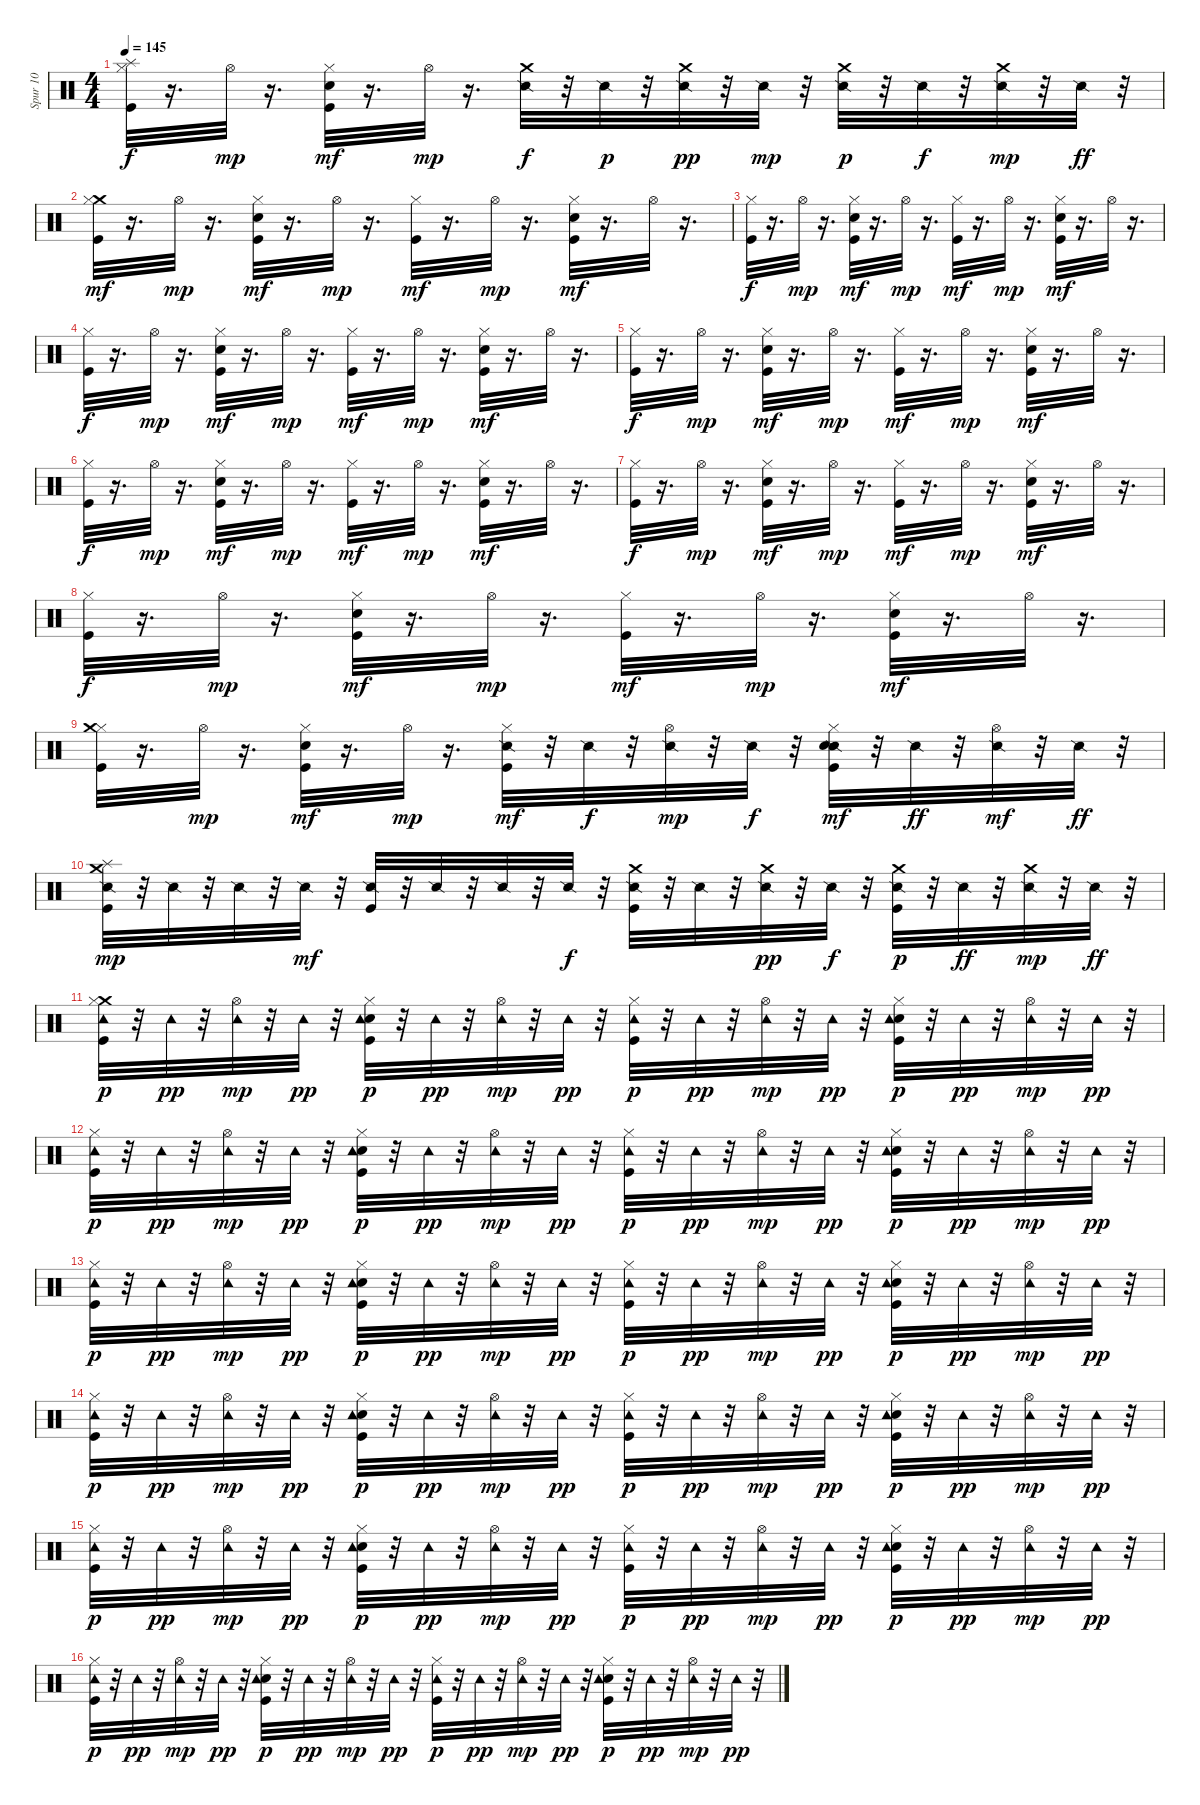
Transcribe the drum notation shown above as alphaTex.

\track ("Spur 10" "Spur 10") {instrument percussion}
\staff {score}
\articulation defaults
\ts (4 4)
\tempo 145
\clef neutral
\ks c
("Kick (hit)" "Hi-Hat (closed)" "Splash (hit)").32{dy f} r.16{d} "Hi-Hat (open)".32{dy mp} r.16{d} ("Kick (hit)" "Snare (hit) 2" "Hi-Hat (closed)").32{dy mf} r.16{d} "Hi-Hat (open)".32{dy mp} r.16{d} ("Snare (side stick) 2" "Crash medium (hit)").32{dy f balance 12} r.32 "Snare (side stick) 2".32{dy p} r.32 ("Snare (side stick) 2" "Crash medium (hit)").32{dy pp balance 10} r.32 "Snare (side stick) 2".32{dy mp} r.32 ("Snare (side stick) 2" "Crash medium (hit)").32{dy p balance 6} r.32 "Snare (side stick) 2".32{dy f} r.32 ("Snare (side stick) 2" "Crash medium (hit)").32{dy mp balance 2} r.32 "Snare (side stick) 2".32{dy ff} r.32 |
("Crash medium (hit)" "Kick (hit)" "Hi-Hat (closed)").32{dy mf balance 8} r.16{d} "Hi-Hat (open)".32{dy mp} r.16{d} ("Kick (hit)" "Snare (hit) 2" "Hi-Hat (closed)").32{dy mf} r.16{d} "Hi-Hat (open)".32{dy mp} r.16{d} ("Kick (hit)" "Hi-Hat (closed)").32{dy mf} r.16{d} "Hi-Hat (open)".32{dy mp} r.16{d} ("Kick (hit)" "Snare (hit) 2" "Hi-Hat (closed)").32{dy mf} r.16{d} "Hi-Hat (open)".32 r.16{d} |
("Kick (hit)" "Hi-Hat (closed)").32{dy f} r.16{d} "Hi-Hat (open)".32{dy mp} r.16{d} ("Kick (hit)" "Snare (hit) 2" "Hi-Hat (closed)").32{dy mf} r.16{d} "Hi-Hat (open)".32{dy mp} r.16{d} ("Kick (hit)" "Hi-Hat (closed)").32{dy mf} r.16{d} "Hi-Hat (open)".32{dy mp} r.16{d} ("Kick (hit)" "Snare (hit) 2" "Hi-Hat (closed)").32{dy mf} r.16{d} "Hi-Hat (open)".32 r.16{d} |
("Kick (hit)" "Hi-Hat (closed)").32{dy f} r.16{d} "Hi-Hat (open)".32{dy mp} r.16{d} ("Kick (hit)" "Snare (hit) 2" "Hi-Hat (closed)").32{dy mf} r.16{d} "Hi-Hat (open)".32{dy mp} r.16{d} ("Kick (hit)" "Hi-Hat (closed)").32{dy mf} r.16{d} "Hi-Hat (open)".32{dy mp} r.16{d} ("Kick (hit)" "Snare (hit) 2" "Hi-Hat (closed)").32{dy mf} r.16{d} "Hi-Hat (open)".32 r.16{d} |
("Kick (hit)" "Hi-Hat (closed)").32{dy f} r.16{d} "Hi-Hat (open)".32{dy mp} r.16{d} ("Kick (hit)" "Snare (hit) 2" "Hi-Hat (closed)").32{dy mf} r.16{d} "Hi-Hat (open)".32{dy mp} r.16{d} ("Kick (hit)" "Hi-Hat (closed)").32{dy mf} r.16{d} "Hi-Hat (open)".32{dy mp} r.16{d} ("Kick (hit)" "Snare (hit) 2" "Hi-Hat (closed)").32{dy mf} r.16{d} "Hi-Hat (open)".32 r.16{d} |
("Kick (hit)" "Hi-Hat (closed)").32{dy f} r.16{d} "Hi-Hat (open)".32{dy mp} r.16{d} ("Kick (hit)" "Snare (hit) 2" "Hi-Hat (closed)").32{dy mf} r.16{d} "Hi-Hat (open)".32{dy mp} r.16{d} ("Kick (hit)" "Hi-Hat (closed)").32{dy mf} r.16{d} "Hi-Hat (open)".32{dy mp} r.16{d} ("Kick (hit)" "Snare (hit) 2" "Hi-Hat (closed)").32{dy mf} r.16{d} "Hi-Hat (open)".32 r.16{d} |
("Kick (hit)" "Hi-Hat (closed)").32{dy f} r.16{d} "Hi-Hat (open)".32{dy mp} r.16{d} ("Kick (hit)" "Snare (hit) 2" "Hi-Hat (closed)").32{dy mf} r.16{d} "Hi-Hat (open)".32{dy mp} r.16{d} ("Kick (hit)" "Hi-Hat (closed)").32{dy mf} r.16{d} "Hi-Hat (open)".32{dy mp} r.16{d} ("Kick (hit)" "Snare (hit) 2" "Hi-Hat (closed)").32{dy mf} r.16{d} "Hi-Hat (open)".32 r.16{d} |
("Kick (hit)" "Hi-Hat (closed)").32{dy f} r.16{d} "Hi-Hat (open)".32{dy mp} r.16{d} ("Kick (hit)" "Snare (hit) 2" "Hi-Hat (closed)").32{dy mf} r.16{d} "Hi-Hat (open)".32{dy mp} r.16{d} ("Kick (hit)" "Hi-Hat (closed)").32{dy mf} r.16{d} "Hi-Hat (open)".32{dy mp} r.16{d} ("Kick (hit)" "Snare (hit) 2" "Hi-Hat (closed)").32{dy mf} r.16{d} "Hi-Hat (open)".32 r.16{d} |
("Kick (hit)" "Hi-Hat (closed)" "Crash medium (hit)").32 r.16{d} "Hi-Hat (open)".32{dy mp} r.16{d} ("Kick (hit)" "Snare (hit) 2" "Hi-Hat (closed)").32{dy mf} r.16{d} "Hi-Hat (open)".32{dy mp} r.16{d} ("Snare (side stick) 2" "Kick (hit)" "Hi-Hat (closed)").32{dy mf} r.32 "Snare (side stick) 2".32{dy f} r.32 ("Snare (side stick) 2" "Hi-Hat (open)").32{dy mp balance 11} r.32 "Snare (side stick) 2".32{dy f} r.32 ("Snare (side stick) 2" "Kick (hit)" "Snare (hit) 2" "Hi-Hat (closed)").32{dy mf balance 8} r.32 "Snare (side stick) 2".32{dy ff} r.32 ("Snare (side stick) 2" "Hi-Hat (open)").32{dy mf balance 4} r.32 "Snare (side stick) 2".32{dy ff} r.32 |
("Crash medium (hit)" "Snare (side stick) 2" "Kick (hit)" "Splash (hit)").32{dy mp balance 8} r.32 "Snare (side stick) 2".32 r.32 "Snare (side stick) 2".32 r.32 "Snare (side stick) 2".32{dy mf} r.32 ("Snare (side stick) 2" "Kick (hit)").32 r.32 "Snare (side stick) 2".32 r.32 "Snare (side stick) 2".32 r.32 "Snare (side stick) 2".32{dy f} r.32 ("Snare (side stick) 2" "Kick (hit)" "Crash medium (hit)").32{balance 10} r.32 "Snare (side stick) 2".32 r.32 ("Snare (side stick) 2" "Crash medium (hit)").32{dy pp balance 14} r.32 "Snare (side stick) 2".32{dy f} r.32 ("Snare (side stick) 2" "Kick (hit)" "Crash medium (hit)").32{dy p balance 7} r.32 "Snare (side stick) 2".32{dy ff} r.32 ("Snare (side stick) 2" "Crash medium (hit)").32{dy mp balance 0} r.32 "Snare (side stick) 2".32{dy ff} r.32 |
("Crash medium (hit)" "Kick (hit)" "Hi-Hat (closed)" "Tambourine (hit)").32{dy p balance 8} r.32 "Tambourine (hit)".32{dy pp} r.32 ("Hi-Hat (open)" "Tambourine (hit)").32{dy mp} r.32 "Tambourine (hit)".32{dy pp} r.32 ("Kick (hit)" "Snare (hit) 2" "Hi-Hat (closed)" "Tambourine (hit)").32{dy p} r.32 "Tambourine (hit)".32{dy pp} r.32 ("Hi-Hat (open)" "Tambourine (hit)").32{dy mp} r.32 "Tambourine (hit)".32{dy pp} r.32 ("Kick (hit)" "Hi-Hat (closed)" "Tambourine (hit)").32{dy p} r.32 "Tambourine (hit)".32{dy pp} r.32 ("Hi-Hat (open)" "Tambourine (hit)").32{dy mp} r.32 "Tambourine (hit)".32{dy pp} r.32 ("Kick (hit)" "Snare (hit) 2" "Hi-Hat (closed)" "Tambourine (hit)").32{dy p} r.32 "Tambourine (hit)".32{dy pp} r.32 ("Hi-Hat (open)" "Tambourine (hit)").32{dy mp} r.32 "Tambourine (hit)".32{dy pp} r.32 |
("Kick (hit)" "Hi-Hat (closed)" "Tambourine (hit)").32{dy p} r.32 "Tambourine (hit)".32{dy pp} r.32 ("Hi-Hat (open)" "Tambourine (hit)").32{dy mp} r.32 "Tambourine (hit)".32{dy pp} r.32 ("Kick (hit)" "Snare (hit) 2" "Hi-Hat (closed)" "Tambourine (hit)").32{dy p} r.32 "Tambourine (hit)".32{dy pp} r.32 ("Hi-Hat (open)" "Tambourine (hit)").32{dy mp} r.32 "Tambourine (hit)".32{dy pp} r.32 ("Kick (hit)" "Hi-Hat (closed)" "Tambourine (hit)").32{dy p} r.32 "Tambourine (hit)".32{dy pp} r.32 ("Hi-Hat (open)" "Tambourine (hit)").32{dy mp} r.32 "Tambourine (hit)".32{dy pp} r.32 ("Kick (hit)" "Snare (hit) 2" "Hi-Hat (closed)" "Tambourine (hit)").32{dy p} r.32 "Tambourine (hit)".32{dy pp} r.32 ("Hi-Hat (open)" "Tambourine (hit)").32{dy mp} r.32 "Tambourine (hit)".32{dy pp} r.32 |
("Kick (hit)" "Hi-Hat (closed)" "Tambourine (hit)").32{dy p} r.32 "Tambourine (hit)".32{dy pp} r.32 ("Hi-Hat (open)" "Tambourine (hit)").32{dy mp} r.32 "Tambourine (hit)".32{dy pp} r.32 ("Kick (hit)" "Snare (hit) 2" "Hi-Hat (closed)" "Tambourine (hit)").32{dy p} r.32 "Tambourine (hit)".32{dy pp} r.32 ("Hi-Hat (open)" "Tambourine (hit)").32{dy mp} r.32 "Tambourine (hit)".32{dy pp} r.32 ("Kick (hit)" "Hi-Hat (closed)" "Tambourine (hit)").32{dy p} r.32 "Tambourine (hit)".32{dy pp} r.32 ("Hi-Hat (open)" "Tambourine (hit)").32{dy mp} r.32 "Tambourine (hit)".32{dy pp} r.32 ("Kick (hit)" "Snare (hit) 2" "Hi-Hat (closed)" "Tambourine (hit)").32{dy p} r.32 "Tambourine (hit)".32{dy pp} r.32 ("Hi-Hat (open)" "Tambourine (hit)").32{dy mp} r.32 "Tambourine (hit)".32{dy pp} r.32 |
("Kick (hit)" "Hi-Hat (closed)" "Tambourine (hit)").32{dy p} r.32 "Tambourine (hit)".32{dy pp} r.32 ("Hi-Hat (open)" "Tambourine (hit)").32{dy mp} r.32 "Tambourine (hit)".32{dy pp} r.32 ("Kick (hit)" "Snare (hit) 2" "Hi-Hat (closed)" "Tambourine (hit)").32{dy p} r.32 "Tambourine (hit)".32{dy pp} r.32 ("Hi-Hat (open)" "Tambourine (hit)").32{dy mp} r.32 "Tambourine (hit)".32{dy pp} r.32 ("Kick (hit)" "Hi-Hat (closed)" "Tambourine (hit)").32{dy p} r.32 "Tambourine (hit)".32{dy pp} r.32 ("Hi-Hat (open)" "Tambourine (hit)").32{dy mp} r.32 "Tambourine (hit)".32{dy pp} r.32 ("Kick (hit)" "Snare (hit) 2" "Hi-Hat (closed)" "Tambourine (hit)").32{dy p} r.32 "Tambourine (hit)".32{dy pp} r.32 ("Hi-Hat (open)" "Tambourine (hit)").32{dy mp} r.32 "Tambourine (hit)".32{dy pp} r.32 |
("Kick (hit)" "Hi-Hat (closed)" "Tambourine (hit)").32{dy p} r.32 "Tambourine (hit)".32{dy pp} r.32 ("Hi-Hat (open)" "Tambourine (hit)").32{dy mp} r.32 "Tambourine (hit)".32{dy pp} r.32 ("Kick (hit)" "Snare (hit) 2" "Hi-Hat (closed)" "Tambourine (hit)").32{dy p} r.32 "Tambourine (hit)".32{dy pp} r.32 ("Hi-Hat (open)" "Tambourine (hit)").32{dy mp} r.32 "Tambourine (hit)".32{dy pp} r.32 ("Kick (hit)" "Hi-Hat (closed)" "Tambourine (hit)").32{dy p} r.32 "Tambourine (hit)".32{dy pp} r.32 ("Hi-Hat (open)" "Tambourine (hit)").32{dy mp} r.32 "Tambourine (hit)".32{dy pp} r.32 ("Kick (hit)" "Snare (hit) 2" "Hi-Hat (closed)" "Tambourine (hit)").32{dy p} r.32 "Tambourine (hit)".32{dy pp} r.32 ("Hi-Hat (open)" "Tambourine (hit)").32{dy mp} r.32 "Tambourine (hit)".32{dy pp} r.32 |
("Kick (hit)" "Hi-Hat (closed)" "Tambourine (hit)").32{dy p} r.32 "Tambourine (hit)".32{dy pp} r.32 ("Hi-Hat (open)" "Tambourine (hit)").32{dy mp} r.32 "Tambourine (hit)".32{dy pp} r.32 ("Kick (hit)" "Snare (hit) 2" "Hi-Hat (closed)" "Tambourine (hit)").32{dy p} r.32 "Tambourine (hit)".32{dy pp} r.32 ("Hi-Hat (open)" "Tambourine (hit)").32{dy mp} r.32 "Tambourine (hit)".32{dy pp} r.32 ("Kick (hit)" "Hi-Hat (closed)" "Tambourine (hit)").32{dy p} r.32 "Tambourine (hit)".32{dy pp} r.32 ("Hi-Hat (open)" "Tambourine (hit)").32{dy mp} r.32 "Tambourine (hit)".32{dy pp} r.32 ("Kick (hit)" "Snare (hit) 2" "Hi-Hat (closed)" "Tambourine (hit)").32{dy p} r.32 "Tambourine (hit)".32{dy pp} r.32 ("Hi-Hat (open)" "Tambourine (hit)").32{dy mp} r.32 "Tambourine (hit)".32{dy pp} r.32
